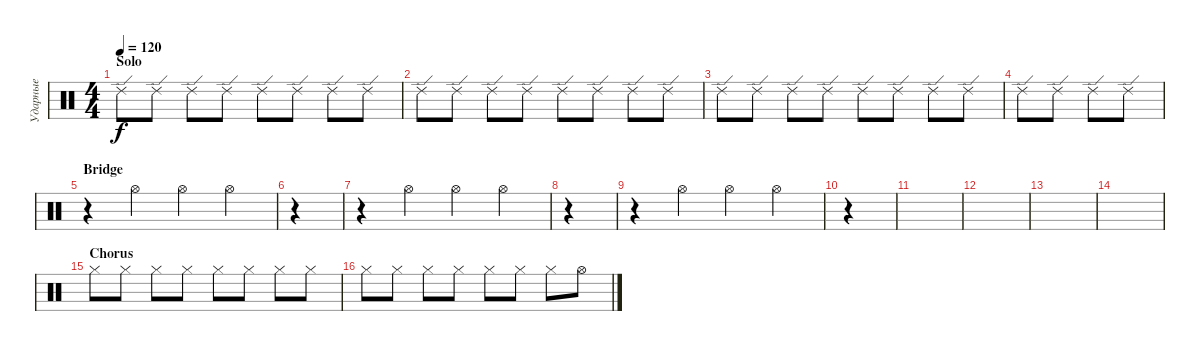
\track ("Ударные" "Ударные") {instrument percussion}
\staff {score}
\articulation defaults
\ts (4 4)
\section ("" "Solo")
\tempo 120
\clef neutral
\ks c "Ride (edge) 2".8{dy f} "Ride (edge) 2".8 "Ride (edge) 2".8 "Ride (edge) 2".8 "Ride (edge) 2".8 "Ride (edge) 2".8 "Ride (edge) 2".8 "Ride (edge) 2".8
|
"Ride (edge) 2".8 "Ride (edge) 2".8 "Ride (edge) 2".8 "Ride (edge) 2".8 "Ride (edge) 2".8 "Ride (edge) 2".8 "Ride (edge) 2".8 "Ride (edge) 2".8 |
"Ride (edge) 2".8 "Ride (edge) 2".8 "Ride (edge) 2".8 "Ride (edge) 2".8 "Ride (edge) 2".8 "Ride (edge) 2".8 "Ride (edge) 2".8 "Ride (edge) 2".8 |
"Ride (edge) 2".8 "Ride (edge) 2".8 "Ride (edge) 2".8 "Ride (edge) 2".8 |
\section ("" "Bridge")
r.4 "Hi-Hat (open)".4 "Hi-Hat (open)".4 "Hi-Hat (open)".4 |
r.4 |
r.4 "Hi-Hat (open)".4 "Hi-Hat (open)".4 "Hi-Hat (open)".4 |
r.4 |
r.4 "Hi-Hat (open)".4 "Hi-Hat (open)".4 "Hi-Hat (open)".4 |
r.4 |
|
|
|
|
\section ("" "Chorus")
"Hi-Hat (closed)".8 "Hi-Hat (closed)".8 "Hi-Hat (closed)".8 "Hi-Hat (closed)".8 "Hi-Hat (closed)".8 "Hi-Hat (closed)".8 "Hi-Hat (closed)".8 "Hi-Hat (closed)".8 |
"Hi-Hat (closed)".8 "Hi-Hat (closed)".8 "Hi-Hat (closed)".8 "Hi-Hat (closed)".8 "Hi-Hat (closed)".8 "Hi-Hat (closed)".8 "Hi-Hat (closed)".8 "Hi-Hat (open)".8
